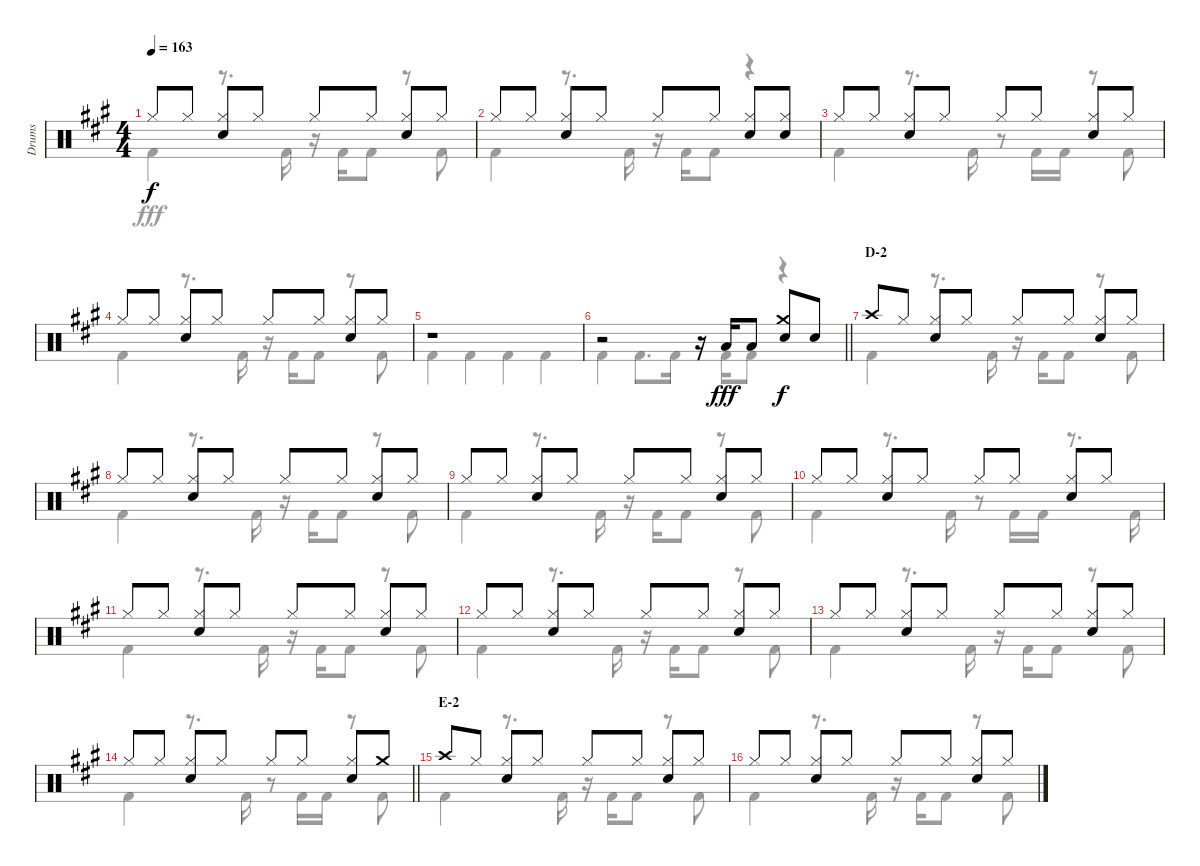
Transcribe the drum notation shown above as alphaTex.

\track ("Drums" "Drums") {instrument percussion}
\staff {score}
\articulation defaults
\voice
\ts (4 4)
\tempo 163
\clef neutral
\ks a "Hi-Hat (closed)".8{dy f} "Hi-Hat (closed)".8
("Hi-Hat (closed)" "Snare (hit) 2").8 "Hi-Hat (closed)".8 "Hi-Hat (closed)".8 "Hi-Hat (closed)".8 ("Hi-Hat (closed)" "Snare (hit) 2").8 "Hi-Hat (closed)".8 |
"Hi-Hat (closed)".8 "Hi-Hat (closed)".8 ("Hi-Hat (closed)" "Snare (hit) 2").8 "Hi-Hat (closed)".8 "Hi-Hat (closed)".8 "Hi-Hat (closed)".8 ("Hi-Hat (closed)" "Snare (hit) 2").8 ("Hi-Hat (closed)" "Snare (hit) 2").8 |
"Hi-Hat (closed)".8 "Hi-Hat (closed)".8 ("Hi-Hat (closed)" "Snare (hit) 2").8 "Hi-Hat (closed)".8 "Hi-Hat (closed)".8 "Hi-Hat (closed)".8 ("Hi-Hat (closed)" "Snare (hit) 2").8 "Hi-Hat (closed)".8 |
"Hi-Hat (closed)".8 "Hi-Hat (closed)".8 ("Hi-Hat (closed)" "Snare (hit) 2").8 "Hi-Hat (closed)".8 "Hi-Hat (closed)".8 "Hi-Hat (closed)".8 ("Hi-Hat (closed)" "Snare (hit) 2").8 "Hi-Hat (closed)".8 |
r.1 |
\barLineRight lightlight
r.2 r.16 "Low Tom (hit)".16{dy fff} "Low Tom (hit)".8 ("Crash medium (hit)" "Snare (hit) 2").8{dy f} "Snare (hit) 2".8 |
\section ("" "D-2")
"Crash high (hit)".8 "Hi-Hat (closed)".8 ("Hi-Hat (closed)" "Snare (hit) 2").8 "Hi-Hat (closed)".8 "Hi-Hat (closed)".8 "Hi-Hat (closed)".8 ("Hi-Hat (closed)" "Snare (hit) 2").8 "Hi-Hat (closed)".8 |
"Hi-Hat (closed)".8 "Hi-Hat (closed)".8 ("Hi-Hat (closed)" "Snare (hit) 2").8 "Hi-Hat (closed)".8 "Hi-Hat (closed)".8 "Hi-Hat (closed)".8 ("Hi-Hat (closed)" "Snare (hit) 2").8 "Hi-Hat (closed)".8 |
"Hi-Hat (closed)".8 "Hi-Hat (closed)".8 ("Hi-Hat (closed)" "Snare (hit) 2").8 "Hi-Hat (closed)".8 "Hi-Hat (closed)".8 "Hi-Hat (closed)".8 ("Hi-Hat (closed)" "Snare (hit) 2").8 "Hi-Hat (closed)".8 |
"Hi-Hat (closed)".8 "Hi-Hat (closed)".8 ("Hi-Hat (closed)" "Snare (hit) 2").8 "Hi-Hat (closed)".8 "Hi-Hat (closed)".8 "Hi-Hat (closed)".8 ("Hi-Hat (closed)" "Snare (hit) 2").8 "Hi-Hat (closed)".8 |
"Hi-Hat (closed)".8 "Hi-Hat (closed)".8 ("Hi-Hat (closed)" "Snare (hit) 2").8 "Hi-Hat (closed)".8 "Hi-Hat (closed)".8 "Hi-Hat (closed)".8 ("Hi-Hat (closed)" "Snare (hit) 2").8 "Hi-Hat (closed)".8 |
"Hi-Hat (closed)".8 "Hi-Hat (closed)".8 ("Hi-Hat (closed)" "Snare (hit) 2").8 "Hi-Hat (closed)".8 "Hi-Hat (closed)".8 "Hi-Hat (closed)".8 ("Hi-Hat (closed)" "Snare (hit) 2").8 "Hi-Hat (closed)".8 |
"Hi-Hat (closed)".8 "Hi-Hat (closed)".8 ("Hi-Hat (closed)" "Snare (hit) 2").8 "Hi-Hat (closed)".8 "Hi-Hat (closed)".8 "Hi-Hat (closed)".8 ("Hi-Hat (closed)" "Snare (hit) 2").8 "Hi-Hat (closed)".8 |
\barLineRight lightlight "Hi-Hat (closed)".8 "Hi-Hat (closed)".8
("Hi-Hat (closed)" "Snare (hit) 2").8 "Hi-Hat (closed)".8 "Hi-Hat (closed)".8 "Hi-Hat (closed)".8 ("Hi-Hat (closed)" "Snare (hit) 2").8 "Crash medium (hit)".8 |
\section ("" "E-2")
"Crash high (hit)".8 "Hi-Hat (closed)".8 ("Hi-Hat (closed)" "Snare (hit) 2").8 "Hi-Hat (closed)".8 "Hi-Hat (closed)".8 "Hi-Hat (closed)".8 ("Hi-Hat (closed)" "Snare (hit) 2").8 "Hi-Hat (closed)".8 |
"Hi-Hat (closed)".8 "Hi-Hat (closed)".8 ("Hi-Hat (closed)" "Snare (hit) 2").8 "Hi-Hat (closed)".8 "Hi-Hat (closed)".8 "Hi-Hat (closed)".8 ("Hi-Hat (closed)" "Snare (hit) 2").8 "Hi-Hat (closed)".8
\voice
\clef neutral
\ottava regular
\simile none
\ks a "Kick (hit) 2".4{dy fff}
r.8{d} "Kick (hit) 2".16 r.16 "Kick (hit) 2".16 "Kick (hit) 2".8 r.8 "Kick (hit) 2".8 |
"Kick (hit) 2".4 r.8{d} "Kick (hit) 2".16 r.16 "Kick (hit) 2".16 "Kick (hit) 2".8 r.4 |
"Kick (hit) 2".4 r.8{d} "Kick (hit) 2".16 r.8 "Kick (hit) 2".16 "Kick (hit) 2".16 r.8 "Kick (hit) 2".8 |
"Kick (hit) 2".4 r.8{d} "Kick (hit) 2".16 r.16 "Kick (hit) 2".16 "Kick (hit) 2".8 r.8 "Kick (hit) 2".8 |
"Kick (hit) 2".4 "Kick (hit) 2".4 "Kick (hit) 2".4 "Kick (hit) 2".4 |
\barLineRight lightlight "Kick (hit) 2".4 "Kick (hit) 2".8{d} "Kick (hit) 2".16
r.16 "Kick (hit) 2".16 "Kick (hit) 2".8 r.4 |
"Kick (hit) 2".4 r.8{d} "Kick (hit) 2".16 r.16 "Kick (hit) 2".16 "Kick (hit) 2".8 r.8 "Kick (hit) 2".8 |
"Kick (hit) 2".4 r.8{d} "Kick (hit) 2".16 r.16 "Kick (hit) 2".16 "Kick (hit) 2".8 r.8 "Kick (hit) 2".8 |
"Kick (hit) 2".4 r.8{d} "Kick (hit) 2".16 r.16 "Kick (hit) 2".16 "Kick (hit) 2".8 r.8 "Kick (hit) 2".8 |
"Kick (hit) 2".4 r.8{d} "Kick (hit) 2".16 r.8 "Kick (hit) 2".16 "Kick (hit) 2".16 r.8{d} "Kick (hit) 2".16 |
"Kick (hit) 2".4 r.8{d} "Kick (hit) 2".16 r.16 "Kick (hit) 2".16 "Kick (hit) 2".8 r.8 "Kick (hit) 2".8 |
"Kick (hit) 2".4 r.8{d} "Kick (hit) 2".16 r.16 "Kick (hit) 2".16 "Kick (hit) 2".8 r.8 "Kick (hit) 2".8 |
"Kick (hit) 2".4 r.8{d} "Kick (hit) 2".16 r.16 "Kick (hit) 2".16 "Kick (hit) 2".8 r.8 "Kick (hit) 2".8 |
\barLineRight lightlight "Kick (hit) 2".4
r.8{d} "Kick (hit) 2".16 r.8 "Kick (hit) 2".16 "Kick (hit) 2".16 r.8 "Kick (hit) 2".8 |
"Kick (hit) 2".4 r.8{d} "Kick (hit) 2".16 r.16 "Kick (hit) 2".16 "Kick (hit) 2".8 r.8 "Kick (hit) 2".8 |
"Kick (hit) 2".4 r.8{d} "Kick (hit) 2".16 r.16 "Kick (hit) 2".16 "Kick (hit) 2".8 r.8 "Kick (hit) 2".8
